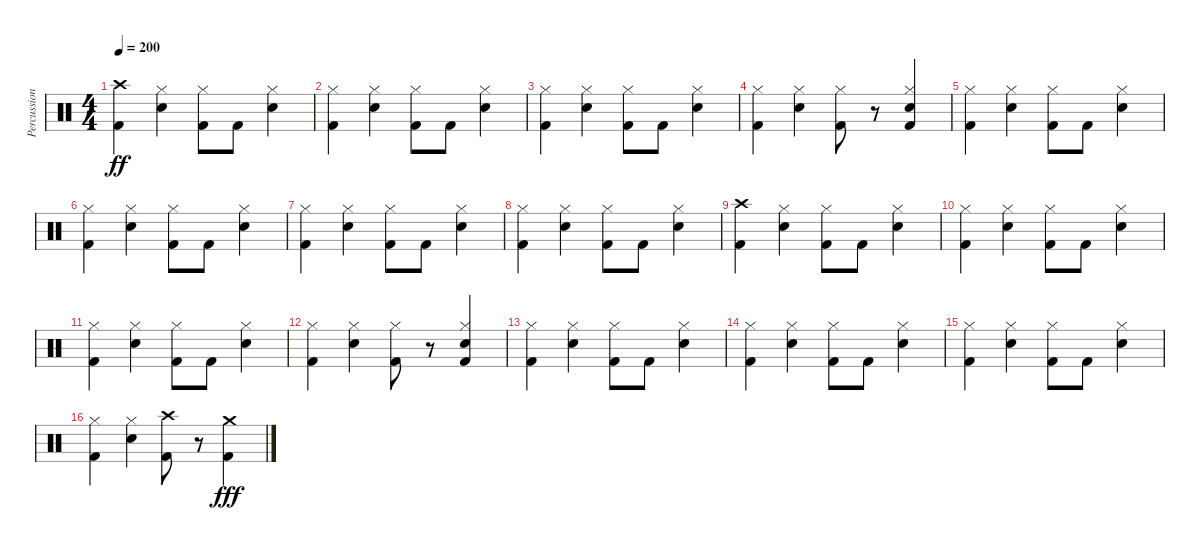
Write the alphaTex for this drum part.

\track ("Percussions 1" "Percussion") {instrument percussion}
\staff {score}
\articulation defaults
\ts (4 4)
\tempo 200
\clef neutral
\ks c
("Crash high (hit)" "Kick (hit) 2").4{dy ff} ("Hi-Hat (closed)" "Snare (hit) 2").4 ("Hi-Hat (closed)" "Kick (hit) 2").8 "Kick (hit) 2".8 ("Hi-Hat (closed)" "Snare (hit) 2").4 |
("Hi-Hat (closed)" "Kick (hit) 2").4 ("Hi-Hat (closed)" "Snare (hit) 2").4 ("Hi-Hat (closed)" "Kick (hit) 2").8 "Kick (hit) 2".8 ("Hi-Hat (closed)" "Snare (hit) 2").4 |
("Hi-Hat (closed)" "Kick (hit) 2").4 ("Hi-Hat (closed)" "Snare (hit) 2").4 ("Hi-Hat (closed)" "Kick (hit) 2").8 "Kick (hit) 2".8 ("Hi-Hat (closed)" "Snare (hit) 2").4 |
("Hi-Hat (closed)" "Kick (hit) 2").4 ("Hi-Hat (closed)" "Snare (hit) 2").4 ("Hi-Hat (closed)" "Kick (hit) 2").8 r.8 ("Hi-Hat (closed)" "Snare (hit) 2" "Kick (hit) 2").4 |
("Hi-Hat (closed)" "Kick (hit) 2").4 ("Hi-Hat (closed)" "Snare (hit) 2").4 ("Hi-Hat (closed)" "Kick (hit) 2").8 "Kick (hit) 2".8 ("Hi-Hat (closed)" "Snare (hit) 2").4 |
("Hi-Hat (closed)" "Kick (hit) 2").4 ("Hi-Hat (closed)" "Snare (hit) 2").4 ("Hi-Hat (closed)" "Kick (hit) 2").8 "Kick (hit) 2".8 ("Hi-Hat (closed)" "Snare (hit) 2").4 |
("Hi-Hat (closed)" "Kick (hit) 2").4 ("Hi-Hat (closed)" "Snare (hit) 2").4 ("Hi-Hat (closed)" "Kick (hit) 2").8 "Kick (hit) 2".8 ("Hi-Hat (closed)" "Snare (hit) 2").4 |
("Hi-Hat (closed)" "Kick (hit) 2").4 ("Hi-Hat (closed)" "Snare (hit) 2").4 ("Hi-Hat (closed)" "Kick (hit) 2").8 "Kick (hit) 2".8 ("Hi-Hat (closed)" "Snare (hit) 2").4 |
("Crash high (hit)" "Kick (hit) 2").4 ("Hi-Hat (closed)" "Snare (hit) 2").4 ("Hi-Hat (closed)" "Kick (hit) 2").8 "Kick (hit) 2".8 ("Hi-Hat (closed)" "Snare (hit) 2").4 |
("Hi-Hat (closed)" "Kick (hit) 2").4 ("Hi-Hat (closed)" "Snare (hit) 2").4 ("Hi-Hat (closed)" "Kick (hit) 2").8 "Kick (hit) 2".8 ("Hi-Hat (closed)" "Snare (hit) 2").4 |
("Hi-Hat (closed)" "Kick (hit) 2").4 ("Hi-Hat (closed)" "Snare (hit) 2").4 ("Hi-Hat (closed)" "Kick (hit) 2").8 "Kick (hit) 2".8 ("Hi-Hat (closed)" "Snare (hit) 2").4 |
("Hi-Hat (closed)" "Kick (hit) 2").4 ("Hi-Hat (closed)" "Snare (hit) 2").4 ("Hi-Hat (closed)" "Kick (hit) 2").8 r.8 ("Hi-Hat (closed)" "Snare (hit) 2" "Kick (hit) 2").4 |
("Hi-Hat (closed)" "Kick (hit) 2").4 ("Hi-Hat (closed)" "Snare (hit) 2").4 ("Hi-Hat (closed)" "Kick (hit) 2").8 "Kick (hit) 2".8 ("Hi-Hat (closed)" "Snare (hit) 2").4 |
("Hi-Hat (closed)" "Kick (hit) 2").4 ("Hi-Hat (closed)" "Snare (hit) 2").4 ("Hi-Hat (closed)" "Kick (hit) 2").8 "Kick (hit) 2".8 ("Hi-Hat (closed)" "Snare (hit) 2").4 |
("Hi-Hat (closed)" "Kick (hit) 2").4 ("Hi-Hat (closed)" "Snare (hit) 2").4 ("Hi-Hat (closed)" "Kick (hit) 2").8 "Kick (hit) 2".8 ("Hi-Hat (closed)" "Snare (hit) 2").4 |
("Hi-Hat (closed)" "Kick (hit) 2").4 ("Hi-Hat (closed)" "Snare (hit) 2").4 ("Crash high (hit)" "Kick (hit) 2").8 r.8 ("Crash medium (hit)" "Kick (hit) 2").4{dy fff}
